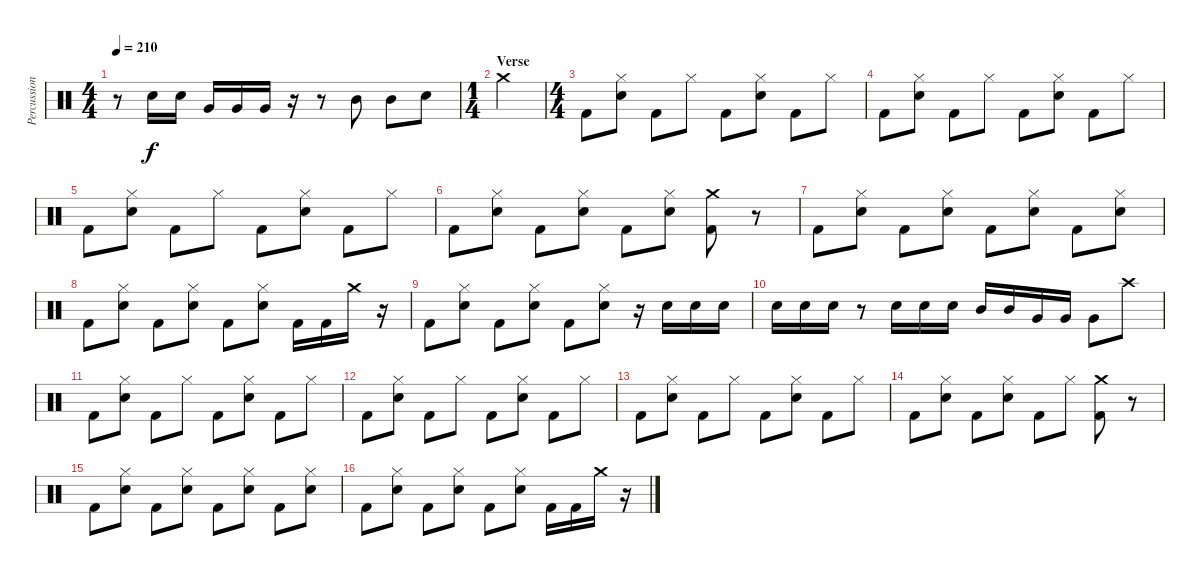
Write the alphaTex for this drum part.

\track ("Percussion" "Percussion") {instrument percussion}
\staff {score}
\articulation defaults
\ts (4 4)
\tempo 210
\clef neutral
\ks c
r.8{dy f} "Electric Snare (hit)".16 "Electric Snare (hit)".16 "Very Low Tom (hit)".16 "Very Low Tom (hit)".16 "Very Low Tom (hit)".16 r.16 r.8 "Mid Tom (hit)".8 "Mid Tom (hit)".8 "Electric Snare (hit)".8 |
\ts (1 4)
\section ("" "Verse")
"Crash medium (hit)".4 |
\ts (4 4)
"Kick (hit) 2".8 ("Hi-Hat (closed)" "Electric Snare (hit)").8 "Kick (hit) 2".8 "Hi-Hat (closed)".8 "Kick (hit) 2".8 ("Hi-Hat (closed)" "Electric Snare (hit)").8 "Kick (hit) 2".8 "Hi-Hat (closed)".8 |
"Kick (hit) 2".8 ("Hi-Hat (closed)" "Electric Snare (hit)").8 "Kick (hit) 2".8 "Hi-Hat (closed)".8 "Kick (hit) 2".8 ("Hi-Hat (closed)" "Electric Snare (hit)").8 "Kick (hit) 2".8 "Hi-Hat (closed)".8 |
"Kick (hit) 2".8 ("Hi-Hat (closed)" "Electric Snare (hit)").8 "Kick (hit) 2".8 "Hi-Hat (closed)".8 "Kick (hit) 2".8 ("Hi-Hat (closed)" "Electric Snare (hit)").8 "Kick (hit) 2".8 "Hi-Hat (closed)".8 |
"Kick (hit) 2".8 ("Hi-Hat (closed)" "Electric Snare (hit)").8 "Kick (hit) 2".8 ("Hi-Hat (closed)" "Electric Snare (hit)").8 "Kick (hit) 2".8 ("Hi-Hat (closed)" "Electric Snare (hit)").8 ("Crash medium (hit)" "Kick (hit) 2").8 r.8 |
"Kick (hit) 2".8 ("Hi-Hat (closed)" "Electric Snare (hit)").8 "Kick (hit) 2".8 ("Hi-Hat (closed)" "Electric Snare (hit)").8 "Kick (hit) 2".8 ("Hi-Hat (closed)" "Electric Snare (hit)").8 "Kick (hit) 2".8 ("Hi-Hat (closed)" "Electric Snare (hit)").8 |
"Kick (hit) 2".8 ("Hi-Hat (closed)" "Electric Snare (hit)").8 "Kick (hit) 2".8 ("Hi-Hat (closed)" "Electric Snare (hit)").8 "Kick (hit) 2".8 ("Hi-Hat (closed)" "Electric Snare (hit)").8 "Kick (hit) 2".16 "Kick (hit) 2".16 "Crash medium (hit)".16 r.16 |
"Kick (hit) 2".8 ("Hi-Hat (closed)" "Electric Snare (hit)").8 "Kick (hit) 2".8 ("Hi-Hat (closed)" "Electric Snare (hit)").8 "Kick (hit) 2".8 ("Hi-Hat (closed)" "Electric Snare (hit)").8 r.16 "Electric Snare (hit)".16 "Electric Snare (hit)".16 "Electric Snare (hit)".16 |
"Electric Snare (hit)".16 "Electric Snare (hit)".16 "Electric Snare (hit)".16 r.8 "Electric Snare (hit)".16 "Electric Snare (hit)".16 "Electric Snare (hit)".16 "Mid Tom (hit)".16 "Mid Tom (hit)".16 "Very Low Tom (hit)".16 "Very Low Tom (hit)".16 "Very Low Tom (hit)".8 "Crash high (hit)".8 |
"Kick (hit) 2".8 ("Hi-Hat (closed)" "Electric Snare (hit)").8 "Kick (hit) 2".8 "Hi-Hat (closed)".8 "Kick (hit) 2".8 ("Hi-Hat (closed)" "Electric Snare (hit)").8 "Kick (hit) 2".8 "Hi-Hat (closed)".8 |
"Kick (hit) 2".8 ("Hi-Hat (closed)" "Electric Snare (hit)").8 "Kick (hit) 2".8 "Hi-Hat (closed)".8 "Kick (hit) 2".8 ("Hi-Hat (closed)" "Electric Snare (hit)").8 "Kick (hit) 2".8 "Hi-Hat (closed)".8 |
"Kick (hit) 2".8 ("Hi-Hat (closed)" "Electric Snare (hit)").8 "Kick (hit) 2".8 "Hi-Hat (closed)".8 "Kick (hit) 2".8 ("Hi-Hat (closed)" "Electric Snare (hit)").8 "Kick (hit) 2".8 "Hi-Hat (closed)".8 |
"Kick (hit) 2".8 ("Hi-Hat (closed)" "Electric Snare (hit)").8 "Kick (hit) 2".8 ("Hi-Hat (closed)" "Electric Snare (hit)").8 "Kick (hit) 2".8 "Hi-Hat (closed)".8 ("Crash medium (hit)" "Kick (hit) 2").8 r.8 |
"Kick (hit) 2".8 ("Hi-Hat (closed)" "Electric Snare (hit)").8 "Kick (hit) 2".8 ("Hi-Hat (closed)" "Electric Snare (hit)").8 "Kick (hit) 2".8 ("Hi-Hat (closed)" "Electric Snare (hit)").8 "Kick (hit) 2".8 ("Hi-Hat (closed)" "Electric Snare (hit)").8 |
"Kick (hit) 2".8 ("Hi-Hat (closed)" "Electric Snare (hit)").8 "Kick (hit) 2".8 ("Hi-Hat (closed)" "Electric Snare (hit)").8 "Kick (hit) 2".8 ("Hi-Hat (closed)" "Electric Snare (hit)").8 "Kick (hit) 2".16 "Kick (hit) 2".16 "Crash medium (hit)".16 r.16
